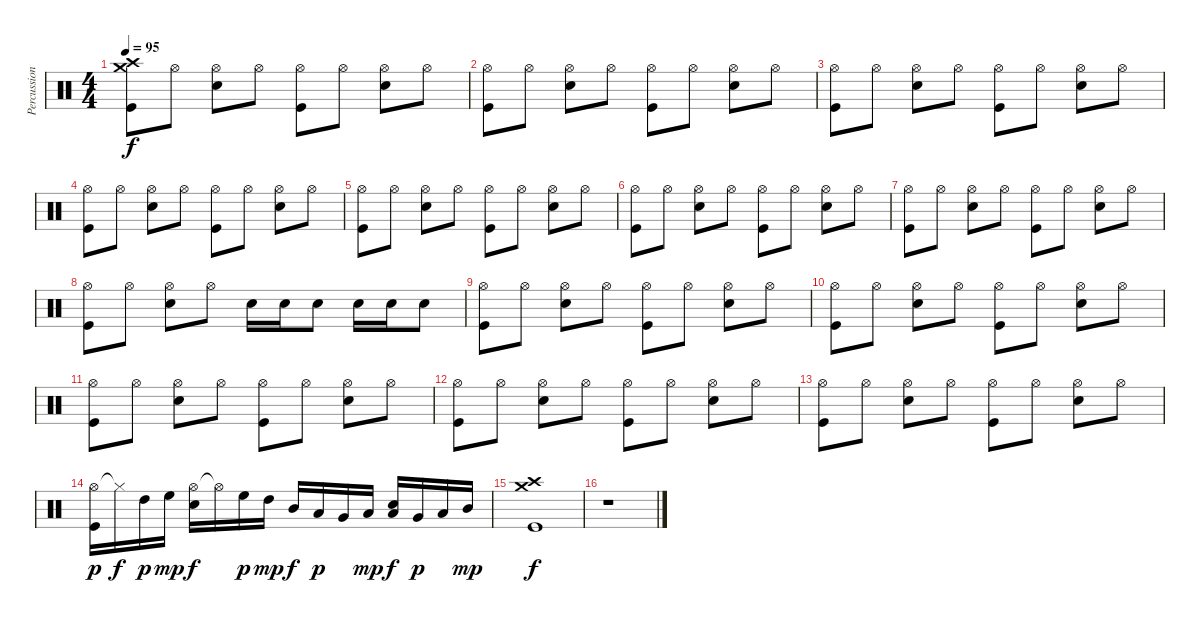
\track ("Percussion" "Percussion") {instrument percussion}
\staff {score}
\articulation defaults
\ts (4 4)
\tempo 95
\clef neutral
\ks c
("Crash medium (hit)" "Crash high (hit)" "Kick (hit)").8{dy f} "Hi-Hat (open)".8 ("Hi-Hat (open)" "Electric Snare (hit)").8 "Hi-Hat (open)".8 ("Hi-Hat (open)" "Kick (hit)").8 "Hi-Hat (open)".8 ("Hi-Hat (open)" "Electric Snare (hit)").8 "Hi-Hat (open)".8 |
("Hi-Hat (open)" "Kick (hit)").8 "Hi-Hat (open)".8 ("Hi-Hat (open)" "Electric Snare (hit)").8 "Hi-Hat (open)".8 ("Hi-Hat (open)" "Kick (hit)").8 "Hi-Hat (open)".8 ("Hi-Hat (open)" "Electric Snare (hit)").8 "Hi-Hat (open)".8 |
("Hi-Hat (open)" "Kick (hit)").8 "Hi-Hat (open)".8 ("Hi-Hat (open)" "Electric Snare (hit)").8 "Hi-Hat (open)".8 ("Hi-Hat (open)" "Kick (hit)").8 "Hi-Hat (open)".8 ("Hi-Hat (open)" "Electric Snare (hit)").8 "Hi-Hat (open)".8 |
("Hi-Hat (open)" "Kick (hit)").8 "Hi-Hat (open)".8 ("Hi-Hat (open)" "Electric Snare (hit)").8 "Hi-Hat (open)".8 ("Hi-Hat (open)" "Kick (hit)").8 "Hi-Hat (open)".8 ("Hi-Hat (open)" "Electric Snare (hit)").8 "Hi-Hat (open)".8 |
("Hi-Hat (open)" "Kick (hit)").8 "Hi-Hat (open)".8 ("Hi-Hat (open)" "Electric Snare (hit)").8 "Hi-Hat (open)".8 ("Hi-Hat (open)" "Kick (hit)").8 "Hi-Hat (open)".8 ("Hi-Hat (open)" "Electric Snare (hit)").8 "Hi-Hat (open)".8 |
("Hi-Hat (open)" "Kick (hit)").8 "Hi-Hat (open)".8 ("Hi-Hat (open)" "Electric Snare (hit)").8 "Hi-Hat (open)".8 ("Hi-Hat (open)" "Kick (hit)").8 "Hi-Hat (open)".8 ("Hi-Hat (open)" "Electric Snare (hit)").8 "Hi-Hat (open)".8 |
("Hi-Hat (open)" "Kick (hit)").8 "Hi-Hat (open)".8 ("Hi-Hat (open)" "Electric Snare (hit)").8 "Hi-Hat (open)".8 ("Hi-Hat (open)" "Kick (hit)").8 "Hi-Hat (open)".8 ("Hi-Hat (open)" "Electric Snare (hit)").8 "Hi-Hat (open)".8 |
("Hi-Hat (open)" "Kick (hit)").8 "Hi-Hat (open)".8 ("Hi-Hat (open)" "Electric Snare (hit)").8 "Hi-Hat (open)".8 "Electric Snare (hit)".16 "Electric Snare (hit)".16 "Snare (hit) 2".8 "Electric Snare (hit)".16 "Electric Snare (hit)".16 "Snare (hit) 2".8 |
("Hi-Hat (open)" "Kick (hit)").8 "Hi-Hat (open)".8 ("Hi-Hat (open)" "Electric Snare (hit)").8 "Hi-Hat (open)".8 ("Hi-Hat (open)" "Kick (hit)").8 "Hi-Hat (open)".8 ("Hi-Hat (open)" "Electric Snare (hit)").8 "Hi-Hat (open)".8 |
("Hi-Hat (open)" "Kick (hit)").8 "Hi-Hat (open)".8 ("Hi-Hat (open)" "Electric Snare (hit)").8 "Hi-Hat (open)".8 ("Hi-Hat (open)" "Kick (hit)").8 "Hi-Hat (open)".8 ("Hi-Hat (open)" "Electric Snare (hit)").8 "Hi-Hat (open)".8 |
("Hi-Hat (open)" "Kick (hit)").8 "Hi-Hat (open)".8 ("Hi-Hat (open)" "Electric Snare (hit)").8 "Hi-Hat (open)".8 ("Hi-Hat (open)" "Kick (hit)").8 "Hi-Hat (open)".8 ("Hi-Hat (open)" "Electric Snare (hit)").8 "Hi-Hat (open)".8 |
("Hi-Hat (open)" "Kick (hit)").8 "Hi-Hat (open)".8 ("Hi-Hat (open)" "Electric Snare (hit)").8 "Hi-Hat (open)".8 ("Hi-Hat (open)" "Kick (hit)").8 "Hi-Hat (open)".8 ("Hi-Hat (open)" "Electric Snare (hit)").8 "Hi-Hat (open)".8 |
("Hi-Hat (open)" "Kick (hit)").8 "Hi-Hat (open)".8 ("Hi-Hat (open)" "Electric Snare (hit)").8 "Hi-Hat (open)".8 ("Hi-Hat (open)" "Kick (hit)").8 "Hi-Hat (open)".8 ("Hi-Hat (open)" "Electric Snare (hit)").8 "Hi-Hat (open)".8 |
("Hi-Hat (open)" "Kick (hit)").16{dy p} "Hi-Hat (closed)"{t}.16{dy f} "High Tom (hit)".16{dy p} "High Floor Tom (hit)".16{dy mp} ("Hi-Hat (open)" "Snare (hit) 2").16{dy f} "Hi-Hat (open)"{t}.16 "High Floor Tom (hit)".16{dy p} "High Tom (hit)".16{dy mp} "Mid Tom (hit)".16{dy f} "Low Tom (hit)".16{dy p} "Very Low Tom (hit)".16 "Low Floor Tom (hit)".16{dy mp} ("Low Floor Tom (hit)" "Snare (hit) 2").16{dy f} "Very Low Tom (hit)".16{dy p} "Low Tom (hit)".16 "Mid Tom (hit)".16{dy mp} |
("Crash high (hit)" "Crash medium (hit)" "Kick (hit)").1{dy f} |
r.1
